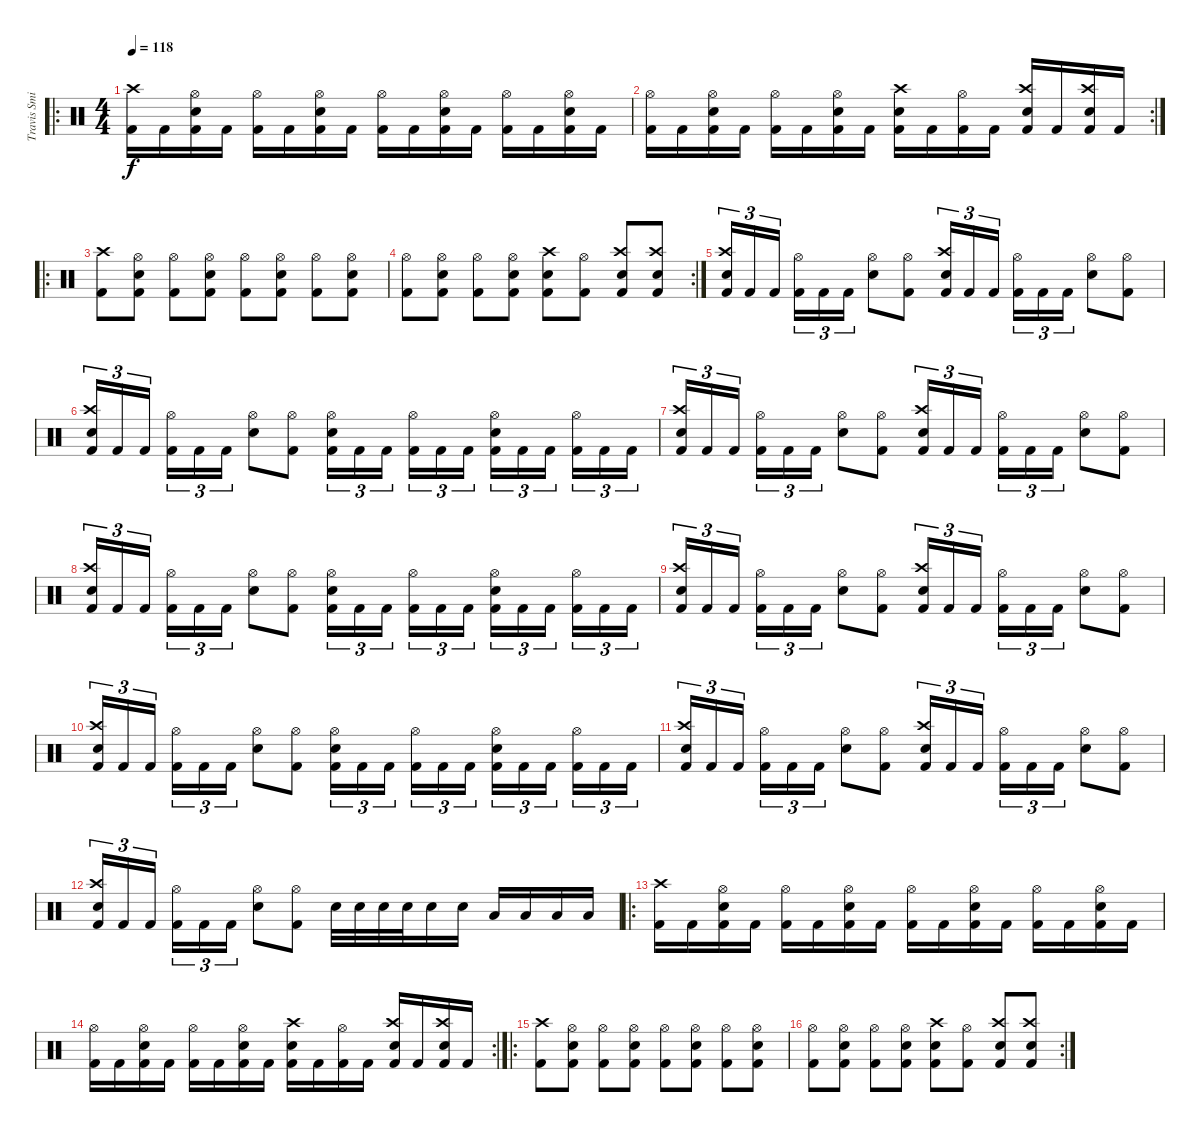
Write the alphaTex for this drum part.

\track ("Travis Smith" "Travis Smi") {instrument percussion}
\staff {score}
\articulation defaults
\ro
\ts (4 4)
\tempo 118
\clef neutral
\ks c
("Kick (hit) 2" "Crash high (hit)").16{dy f} "Kick (hit) 2".16 ("Kick (hit) 2" "Snare (hit) 2" "Hi-Hat (open)").16 "Kick (hit) 2".16 ("Kick (hit) 2" "Hi-Hat (open)").16 "Kick (hit) 2".16 ("Kick (hit) 2" "Snare (hit) 2" "Hi-Hat (open)").16 "Kick (hit) 2".16 ("Kick (hit) 2" "Hi-Hat (open)").16 "Kick (hit) 2".16 ("Kick (hit) 2" "Snare (hit) 2" "Hi-Hat (open)").16 "Kick (hit) 2".16 ("Kick (hit) 2" "Hi-Hat (open)").16 "Kick (hit) 2".16 ("Kick (hit) 2" "Snare (hit) 2" "Hi-Hat (open)").16 "Kick (hit) 2".16 |
\rc 2
("Kick (hit) 2" "Hi-Hat (open)").16 "Kick (hit) 2".16 ("Kick (hit) 2" "Snare (hit) 2" "Hi-Hat (open)").16 "Kick (hit) 2".16 ("Kick (hit) 2" "Hi-Hat (open)").16 "Kick (hit) 2".16 ("Kick (hit) 2" "Snare (hit) 2" "Hi-Hat (open)").16 "Kick (hit) 2".16 ("Kick (hit) 2" "Snare (hit) 2" "Crash high (hit)").16 "Kick (hit) 2".16 ("Kick (hit) 2" "Hi-Hat (open)").16 "Kick (hit) 2".16 ("Kick (hit) 2" "Snare (hit) 2" "Crash high (hit)").16 "Kick (hit) 2".16 ("Kick (hit) 2" "Snare (hit) 2" "Crash high (hit)").16 "Kick (hit) 2".16 |
\ro
("Kick (hit) 2" "Crash high (hit)").8 ("Kick (hit) 2" "Snare (hit) 2" "Hi-Hat (open)").8 ("Kick (hit) 2" "Hi-Hat (open)").8 ("Kick (hit) 2" "Snare (hit) 2" "Hi-Hat (open)").8 ("Kick (hit) 2" "Hi-Hat (open)").8 ("Kick (hit) 2" "Snare (hit) 2" "Hi-Hat (open)").8 ("Kick (hit) 2" "Hi-Hat (open)").8 ("Kick (hit) 2" "Snare (hit) 2" "Hi-Hat (open)").8 |
\rc 2
("Kick (hit) 2" "Hi-Hat (open)").8 ("Kick (hit) 2" "Snare (hit) 2" "Hi-Hat (open)").8 ("Kick (hit) 2" "Hi-Hat (open)").8 ("Kick (hit) 2" "Snare (hit) 2" "Hi-Hat (open)").8 ("Kick (hit) 2" "Snare (hit) 2" "Crash high (hit)").8 ("Kick (hit) 2" "Hi-Hat (open)").8 ("Kick (hit) 2" "Snare (hit) 2" "Crash high (hit)").8 ("Kick (hit) 2" "Snare (hit) 2" "Crash high (hit)").8 |
("Kick (hit) 2" "Snare (hit) 2" "Crash high (hit)").16{tu (3 2)} "Kick (hit) 2".16{tu (3 2)} "Kick (hit) 2".16{tu (3 2) beam splitsecondary} ("Kick (hit) 2" "Hi-Hat (open)").16{tu (3 2)} "Kick (hit) 2".16{tu (3 2)} "Kick (hit) 2".16{tu (3 2)} ("Snare (hit) 2" "Hi-Hat (open)").8 ("Kick (hit) 2" "Hi-Hat (open)").8 ("Kick (hit) 2" "Snare (hit) 2" "Crash high (hit)").16{tu (3 2)} "Kick (hit) 2".16{tu (3 2)} "Kick (hit) 2".16{tu (3 2) beam splitsecondary} ("Kick (hit) 2" "Hi-Hat (open)").16{tu (3 2)} "Kick (hit) 2".16{tu (3 2)} "Kick (hit) 2".16{tu (3 2)} ("Snare (hit) 2" "Hi-Hat (open)").8 ("Kick (hit) 2" "Hi-Hat (open)").8 |
("Kick (hit) 2" "Snare (hit) 2" "Crash high (hit)").16{tu (3 2)} "Kick (hit) 2".16{tu (3 2)} "Kick (hit) 2".16{tu (3 2) beam splitsecondary} ("Kick (hit) 2" "Hi-Hat (open)").16{tu (3 2)} "Kick (hit) 2".16{tu (3 2)} "Kick (hit) 2".16{tu (3 2)} ("Snare (hit) 2" "Hi-Hat (open)").8 ("Kick (hit) 2" "Hi-Hat (open)").8 ("Kick (hit) 2" "Snare (hit) 2" "Hi-Hat (open)").16{tu (3 2)} "Kick (hit) 2".16{tu (3 2)} "Kick (hit) 2".16{tu (3 2) beam splitsecondary} ("Kick (hit) 2" "Hi-Hat (open)").16{tu (3 2)} "Kick (hit) 2".16{tu (3 2)} "Kick (hit) 2".16{tu (3 2)} ("Kick (hit) 2" "Snare (hit) 2" "Hi-Hat (open)").16{tu (3 2)} "Kick (hit) 2".16{tu (3 2)} "Kick (hit) 2".16{tu (3 2) beam splitsecondary} ("Kick (hit) 2" "Hi-Hat (open)").16{tu (3 2)} "Kick (hit) 2".16{tu (3 2)} "Kick (hit) 2".16{tu (3 2)} |
("Kick (hit) 2" "Snare (hit) 2" "Crash high (hit)").16{tu (3 2)} "Kick (hit) 2".16{tu (3 2)} "Kick (hit) 2".16{tu (3 2) beam splitsecondary} ("Kick (hit) 2" "Hi-Hat (open)").16{tu (3 2)} "Kick (hit) 2".16{tu (3 2)} "Kick (hit) 2".16{tu (3 2)} ("Snare (hit) 2" "Hi-Hat (open)").8 ("Kick (hit) 2" "Hi-Hat (open)").8 ("Kick (hit) 2" "Snare (hit) 2" "Crash high (hit)").16{tu (3 2)} "Kick (hit) 2".16{tu (3 2)} "Kick (hit) 2".16{tu (3 2) beam splitsecondary} ("Kick (hit) 2" "Hi-Hat (open)").16{tu (3 2)} "Kick (hit) 2".16{tu (3 2)} "Kick (hit) 2".16{tu (3 2)} ("Snare (hit) 2" "Hi-Hat (open)").8 ("Kick (hit) 2" "Hi-Hat (open)").8 |
("Kick (hit) 2" "Snare (hit) 2" "Crash high (hit)").16{tu (3 2)} "Kick (hit) 2".16{tu (3 2)} "Kick (hit) 2".16{tu (3 2) beam splitsecondary} ("Kick (hit) 2" "Hi-Hat (open)").16{tu (3 2)} "Kick (hit) 2".16{tu (3 2)} "Kick (hit) 2".16{tu (3 2)} ("Snare (hit) 2" "Hi-Hat (open)").8 ("Kick (hit) 2" "Hi-Hat (open)").8 ("Kick (hit) 2" "Snare (hit) 2" "Hi-Hat (open)").16{tu (3 2)} "Kick (hit) 2".16{tu (3 2)} "Kick (hit) 2".16{tu (3 2) beam splitsecondary} ("Kick (hit) 2" "Hi-Hat (open)").16{tu (3 2)} "Kick (hit) 2".16{tu (3 2)} "Kick (hit) 2".16{tu (3 2)} ("Kick (hit) 2" "Snare (hit) 2" "Hi-Hat (open)").16{tu (3 2)} "Kick (hit) 2".16{tu (3 2)} "Kick (hit) 2".16{tu (3 2) beam splitsecondary} ("Kick (hit) 2" "Hi-Hat (open)").16{tu (3 2)} "Kick (hit) 2".16{tu (3 2)} "Kick (hit) 2".16{tu (3 2)} |
("Kick (hit) 2" "Snare (hit) 2" "Crash high (hit)").16{tu (3 2)} "Kick (hit) 2".16{tu (3 2)} "Kick (hit) 2".16{tu (3 2) beam splitsecondary} ("Kick (hit) 2" "Hi-Hat (open)").16{tu (3 2)} "Kick (hit) 2".16{tu (3 2)} "Kick (hit) 2".16{tu (3 2)} ("Snare (hit) 2" "Hi-Hat (open)").8 ("Kick (hit) 2" "Hi-Hat (open)").8 ("Kick (hit) 2" "Snare (hit) 2" "Crash high (hit)").16{tu (3 2)} "Kick (hit) 2".16{tu (3 2)} "Kick (hit) 2".16{tu (3 2) beam splitsecondary} ("Kick (hit) 2" "Hi-Hat (open)").16{tu (3 2)} "Kick (hit) 2".16{tu (3 2)} "Kick (hit) 2".16{tu (3 2)} ("Snare (hit) 2" "Hi-Hat (open)").8 ("Kick (hit) 2" "Hi-Hat (open)").8 |
("Kick (hit) 2" "Snare (hit) 2" "Crash high (hit)").16{tu (3 2)} "Kick (hit) 2".16{tu (3 2)} "Kick (hit) 2".16{tu (3 2) beam splitsecondary} ("Kick (hit) 2" "Hi-Hat (open)").16{tu (3 2)} "Kick (hit) 2".16{tu (3 2)} "Kick (hit) 2".16{tu (3 2)} ("Snare (hit) 2" "Hi-Hat (open)").8 ("Kick (hit) 2" "Hi-Hat (open)").8 ("Kick (hit) 2" "Snare (hit) 2" "Hi-Hat (open)").16{tu (3 2)} "Kick (hit) 2".16{tu (3 2)} "Kick (hit) 2".16{tu (3 2) beam splitsecondary} ("Kick (hit) 2" "Hi-Hat (open)").16{tu (3 2)} "Kick (hit) 2".16{tu (3 2)} "Kick (hit) 2".16{tu (3 2)} ("Kick (hit) 2" "Snare (hit) 2" "Hi-Hat (open)").16{tu (3 2)} "Kick (hit) 2".16{tu (3 2)} "Kick (hit) 2".16{tu (3 2) beam splitsecondary} ("Kick (hit) 2" "Hi-Hat (open)").16{tu (3 2)} "Kick (hit) 2".16{tu (3 2)} "Kick (hit) 2".16{tu (3 2)} |
("Kick (hit) 2" "Snare (hit) 2" "Crash high (hit)").16{tu (3 2)} "Kick (hit) 2".16{tu (3 2)} "Kick (hit) 2".16{tu (3 2) beam splitsecondary} ("Kick (hit) 2" "Hi-Hat (open)").16{tu (3 2)} "Kick (hit) 2".16{tu (3 2)} "Kick (hit) 2".16{tu (3 2)} ("Snare (hit) 2" "Hi-Hat (open)").8 ("Kick (hit) 2" "Hi-Hat (open)").8 ("Kick (hit) 2" "Snare (hit) 2" "Crash high (hit)").16{tu (3 2)} "Kick (hit) 2".16{tu (3 2)} "Kick (hit) 2".16{tu (3 2) beam splitsecondary} ("Kick (hit) 2" "Hi-Hat (open)").16{tu (3 2)} "Kick (hit) 2".16{tu (3 2)} "Kick (hit) 2".16{tu (3 2)} ("Snare (hit) 2" "Hi-Hat (open)").8 ("Kick (hit) 2" "Hi-Hat (open)").8 |
("Kick (hit) 2" "Snare (hit) 2" "Crash high (hit)").16{tu (3 2)} "Kick (hit) 2".16{tu (3 2)} "Kick (hit) 2".16{tu (3 2) beam splitsecondary} ("Kick (hit) 2" "Hi-Hat (open)").16{tu (3 2)} "Kick (hit) 2".16{tu (3 2)} "Kick (hit) 2".16{tu (3 2)} ("Snare (hit) 2" "Hi-Hat (open)").8 ("Kick (hit) 2" "Hi-Hat (open)").8 "Snare (hit) 2".32 "Snare (hit) 2".32 "Snare (hit) 2".32 "Snare (hit) 2".32 "Snare (hit) 2".16 "Snare (hit) 2".16 "Low Tom (hit)".16 "Low Tom (hit)".16 "Low Tom (hit)".16 "Low Tom (hit)".16 |
\ro
("Kick (hit) 2" "Crash high (hit)").16 "Kick (hit) 2".16 ("Kick (hit) 2" "Snare (hit) 2" "Hi-Hat (open)").16 "Kick (hit) 2".16 ("Kick (hit) 2" "Hi-Hat (open)").16 "Kick (hit) 2".16 ("Kick (hit) 2" "Snare (hit) 2" "Hi-Hat (open)").16 "Kick (hit) 2".16 ("Kick (hit) 2" "Hi-Hat (open)").16 "Kick (hit) 2".16 ("Kick (hit) 2" "Snare (hit) 2" "Hi-Hat (open)").16 "Kick (hit) 2".16 ("Kick (hit) 2" "Hi-Hat (open)").16 "Kick (hit) 2".16 ("Kick (hit) 2" "Snare (hit) 2" "Hi-Hat (open)").16 "Kick (hit) 2".16 |
\rc 2
("Kick (hit) 2" "Hi-Hat (open)").16 "Kick (hit) 2".16 ("Kick (hit) 2" "Snare (hit) 2" "Hi-Hat (open)").16 "Kick (hit) 2".16 ("Kick (hit) 2" "Hi-Hat (open)").16 "Kick (hit) 2".16 ("Kick (hit) 2" "Snare (hit) 2" "Hi-Hat (open)").16 "Kick (hit) 2".16 ("Kick (hit) 2" "Snare (hit) 2" "Crash high (hit)").16 "Kick (hit) 2".16 ("Kick (hit) 2" "Hi-Hat (open)").16 "Kick (hit) 2".16 ("Kick (hit) 2" "Snare (hit) 2" "Crash high (hit)").16 "Kick (hit) 2".16 ("Kick (hit) 2" "Snare (hit) 2" "Crash high (hit)").16 "Kick (hit) 2".16 |
\ro
("Kick (hit) 2" "Crash high (hit)").8 ("Kick (hit) 2" "Snare (hit) 2" "Hi-Hat (open)").8 ("Kick (hit) 2" "Hi-Hat (open)").8 ("Kick (hit) 2" "Snare (hit) 2" "Hi-Hat (open)").8 ("Kick (hit) 2" "Hi-Hat (open)").8 ("Kick (hit) 2" "Snare (hit) 2" "Hi-Hat (open)").8 ("Kick (hit) 2" "Hi-Hat (open)").8 ("Kick (hit) 2" "Snare (hit) 2" "Hi-Hat (open)").8 |
\rc 2
("Kick (hit) 2" "Hi-Hat (open)").8 ("Kick (hit) 2" "Snare (hit) 2" "Hi-Hat (open)").8 ("Kick (hit) 2" "Hi-Hat (open)").8 ("Kick (hit) 2" "Snare (hit) 2" "Hi-Hat (open)").8 ("Kick (hit) 2" "Snare (hit) 2" "Crash high (hit)").8 ("Kick (hit) 2" "Hi-Hat (open)").8 ("Kick (hit) 2" "Snare (hit) 2" "Crash high (hit)").8 ("Kick (hit) 2" "Snare (hit) 2" "Crash high (hit)").8
